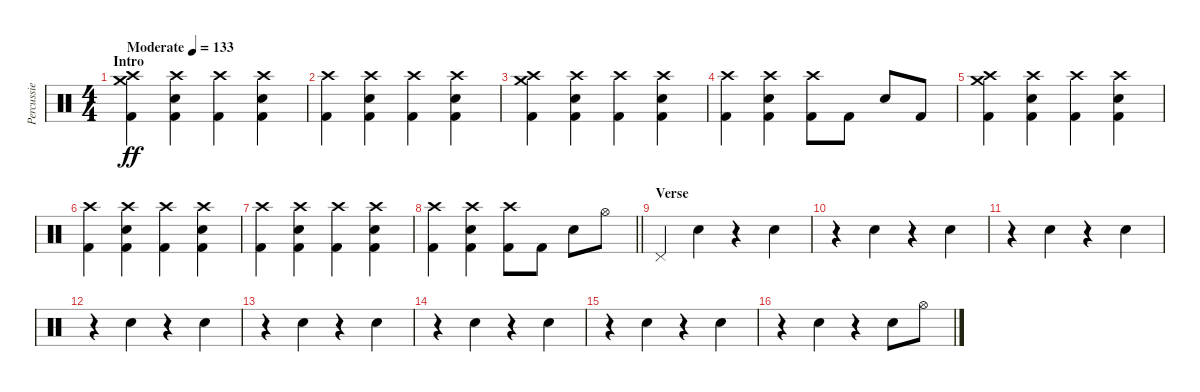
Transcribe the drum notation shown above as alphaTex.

\track ("Percussie" "Percussie") {instrument percussion}
\staff {score}
\articulation defaults
\ts (4 4)
\section ("" "Intro")
\tempo (133 "Moderate")
\clef neutral
\ks c
("Crash medium (hit)" "Crash high (hit)" "Kick (hit) 2").4{dy ff} ("Crash high (hit)" "Snare (hit) 2" "Kick (hit) 2").4 ("Crash high (hit)" "Kick (hit) 2").4 ("Crash high (hit)" "Snare (hit) 2" "Kick (hit) 2").4 |
("Crash high (hit)" "Kick (hit) 2").4 ("Crash high (hit)" "Snare (hit) 2" "Kick (hit) 2").4 ("Crash high (hit)" "Kick (hit) 2").4 ("Crash high (hit)" "Snare (hit) 2" "Kick (hit) 2").4 |
("Crash medium (hit)" "Crash high (hit)" "Kick (hit) 2").4 ("Crash high (hit)" "Snare (hit) 2" "Kick (hit) 2").4 ("Crash high (hit)" "Kick (hit) 2").4 ("Crash high (hit)" "Snare (hit) 2" "Kick (hit) 2").4 |
("Crash high (hit)" "Kick (hit) 2").4 ("Crash high (hit)" "Snare (hit) 2" "Kick (hit) 2").4 ("Crash high (hit)" "Kick (hit) 2").8 "Kick (hit) 2".8 "Snare (hit) 2".8 "Kick (hit) 2".8 |
("Crash medium (hit)" "Crash high (hit)" "Kick (hit) 2").4 ("Crash high (hit)" "Snare (hit) 2" "Kick (hit) 2").4 ("Crash high (hit)" "Kick (hit) 2").4 ("Crash high (hit)" "Snare (hit) 2" "Kick (hit) 2").4 |
("Crash high (hit)" "Kick (hit) 2").4 ("Crash high (hit)" "Snare (hit) 2" "Kick (hit) 2").4 ("Crash high (hit)" "Kick (hit) 2").4 ("Crash high (hit)" "Snare (hit) 2" "Kick (hit) 2").4 |
("Crash high (hit)" "Kick (hit) 2").4 ("Crash high (hit)" "Snare (hit) 2" "Kick (hit) 2").4 ("Crash high (hit)" "Kick (hit) 2").4 ("Crash high (hit)" "Snare (hit) 2" "Kick (hit) 2").4 |
\barLineRight lightlight
("Crash high (hit)" "Kick (hit) 2").4 ("Crash high (hit)" "Snare (hit) 2" "Kick (hit) 2").4 ("Crash high (hit)" "Kick (hit) 2").8 "Kick (hit) 2".8 "Snare (hit) 2".8 "Hi-Hat (open)".8 |
\section ("" "Verse")
"Pedal Hi-Hat (hit)".4 "Snare (hit) 2".4 r.4 "Snare (hit) 2".4 |
r.4 "Snare (hit) 2".4 r.4 "Snare (hit) 2".4 |
r.4 "Snare (hit) 2".4 r.4 "Snare (hit) 2".4 |
r.4 "Snare (hit) 2".4 r.4 "Snare (hit) 2".4 |
r.4 "Snare (hit) 2".4 r.4 "Snare (hit) 2".4 |
r.4 "Snare (hit) 2".4 r.4 "Snare (hit) 2".4 |
r.4 "Snare (hit) 2".4 r.4 "Snare (hit) 2".4 |
r.4 "Snare (hit) 2".4 r.4 "Snare (hit) 2".8 "Hi-Hat (open)".8
